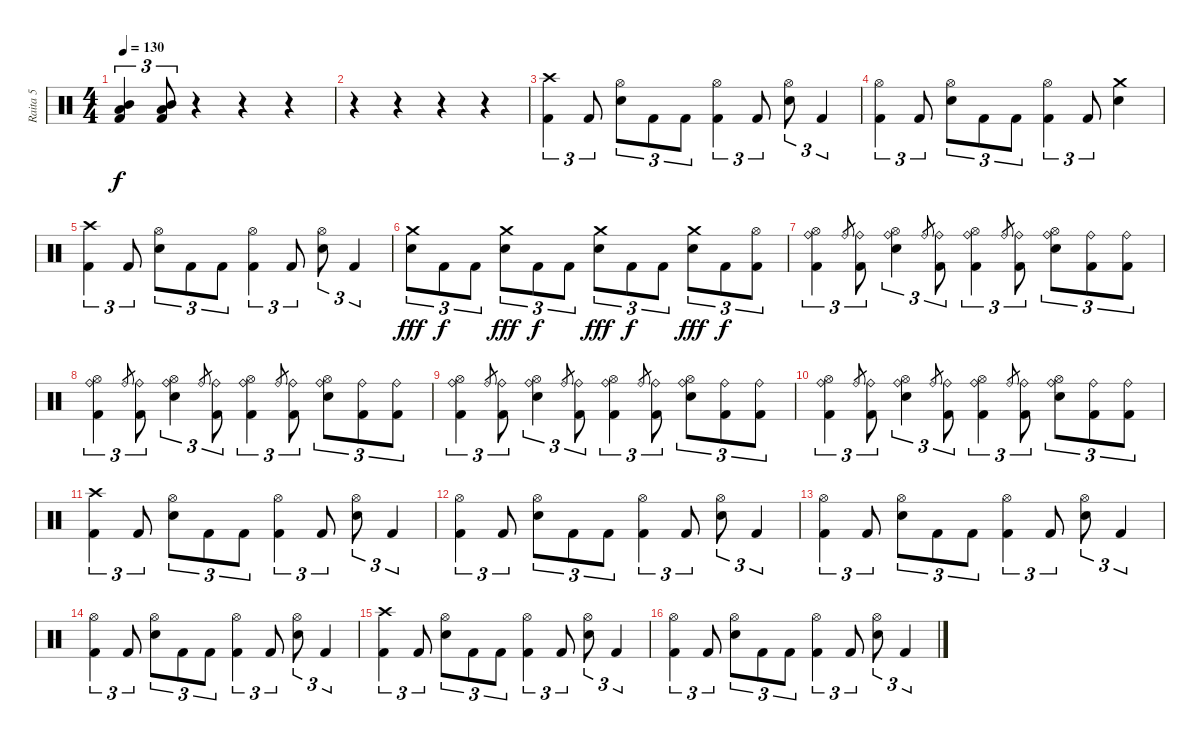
\track ("Raita 5" "Raita 5") {instrument percussion}
\staff {score}
\articulation defaults
\ts (4 4)
\tempo 130
\clef neutral
\ks c
("Mid Tom (hit)" "Low Tom (hit)" "Kick (hit) 2").4{tu (3 2) dy f} ("Mid Tom (hit)" "Low Tom (hit)" "Kick (hit) 2").8{tu (3 2)} r.4 r.4 r.4 |
r.4 r.4 r.4 r.4 |
("Crash high (hit)" "Kick (hit) 2").4{tu (3 2)} "Kick (hit) 2".8{tu (3 2)} ("Hi-Hat (open)" "Snare (hit) 2").8{tu (3 2)} "Kick (hit) 2".8{tu (3 2)} "Kick (hit) 2".8{tu (3 2)} ("Hi-Hat (open)" "Kick (hit) 2").4{tu (3 2)} "Kick (hit) 2".8{tu (3 2)} ("Hi-Hat (open)" "Snare (hit) 2").8{tu (3 2)} "Kick (hit) 2".4{tu (3 2)} |
("Hi-Hat (open)" "Kick (hit) 2").4{tu (3 2)} "Kick (hit) 2".8{tu (3 2)} ("Hi-Hat (open)" "Snare (hit) 2").8{tu (3 2)} "Kick (hit) 2".8{tu (3 2)} "Kick (hit) 2".8{tu (3 2)} ("Hi-Hat (open)" "Kick (hit) 2").4{tu (3 2)} "Kick (hit) 2".8{tu (3 2)} ("Crash medium (hit)" "Snare (hit) 2").4 |
("Crash high (hit)" "Kick (hit) 2").4{tu (3 2)} "Kick (hit) 2".8{tu (3 2)} ("Hi-Hat (open)" "Snare (hit) 2").8{tu (3 2)} "Kick (hit) 2".8{tu (3 2)} "Kick (hit) 2".8{tu (3 2)} ("Hi-Hat (open)" "Kick (hit) 2").4{tu (3 2)} "Kick (hit) 2".8{tu (3 2)} ("Hi-Hat (open)" "Snare (hit) 2").8{tu (3 2)} "Kick (hit) 2".4{tu (3 2)} |
("Crash medium (hit)" "Snare (hit) 2").8{tu (3 2) dy fff} "Kick (hit) 2".8{tu (3 2) dy f} "Kick (hit) 2".8{tu (3 2)} ("Crash medium (hit)" "Snare (hit) 2").8{tu (3 2) dy fff} "Kick (hit) 2".8{tu (3 2) dy f} "Kick (hit) 2".8{tu (3 2)} ("Crash medium (hit)" "Snare (hit) 2").8{tu (3 2) dy fff} "Kick (hit) 2".8{tu (3 2) dy f} "Kick (hit) 2".8{tu (3 2)} ("Crash medium (hit)" "Snare (hit) 2").8{tu (3 2) dy fff} "Kick (hit) 2".8{tu (3 2) dy f} ("Hi-Hat (open)" "Kick (hit) 2").8{tu (3 2)} |
("Ride (bell)" "Hi-Hat (open)" "Kick (hit) 2").4{tu (3 2)} "Ride (bell)".8{gr} ("Ride (bell)" "Kick (hit) 2").8{tu (3 2)} ("Ride (bell)" "Hi-Hat (open)" "Snare (hit) 2").4{tu (3 2)} "Ride (bell)".8{gr} ("Ride (bell)" "Kick (hit) 2").8{tu (3 2)} ("Ride (bell)" "Hi-Hat (open)" "Kick (hit) 2").4{tu (3 2)} "Ride (bell)".8{gr} ("Ride (bell)" "Kick (hit) 2").8{tu (3 2)} ("Ride (bell)" "Hi-Hat (open)" "Snare (hit) 2").8{tu (3 2)} ("Ride (bell)" "Kick (hit) 2").8{tu (3 2)} ("Ride (bell)" "Kick (hit) 2").8{tu (3 2)} |
("Ride (bell)" "Hi-Hat (open)" "Kick (hit) 2").4{tu (3 2)} "Ride (bell)".8{gr} ("Ride (bell)" "Kick (hit) 2").8{tu (3 2)} ("Ride (bell)" "Hi-Hat (open)" "Snare (hit) 2").4{tu (3 2)} "Ride (bell)".8{gr} ("Ride (bell)" "Kick (hit) 2").8{tu (3 2)} ("Ride (bell)" "Hi-Hat (open)" "Kick (hit) 2").4{tu (3 2)} "Ride (bell)".8{gr} ("Ride (bell)" "Kick (hit) 2").8{tu (3 2)} ("Ride (bell)" "Hi-Hat (open)" "Snare (hit) 2").8{tu (3 2)} ("Ride (bell)" "Kick (hit) 2").8{tu (3 2)} ("Ride (bell)" "Kick (hit) 2").8{tu (3 2)} |
("Ride (bell)" "Hi-Hat (open)" "Kick (hit) 2").4{tu (3 2)} "Ride (bell)".8{gr} ("Ride (bell)" "Kick (hit) 2").8{tu (3 2)} ("Ride (bell)" "Hi-Hat (open)" "Snare (hit) 2").4{tu (3 2)} "Ride (bell)".8{gr} ("Ride (bell)" "Kick (hit) 2").8{tu (3 2)} ("Ride (bell)" "Hi-Hat (open)" "Kick (hit) 2").4{tu (3 2)} "Ride (bell)".8{gr} ("Ride (bell)" "Kick (hit) 2").8{tu (3 2)} ("Ride (bell)" "Hi-Hat (open)" "Snare (hit) 2").8{tu (3 2)} ("Ride (bell)" "Kick (hit) 2").8{tu (3 2)} ("Ride (bell)" "Kick (hit) 2").8{tu (3 2)} |
("Ride (bell)" "Hi-Hat (open)" "Kick (hit) 2").4{tu (3 2)} "Ride (bell)".8{gr} ("Ride (bell)" "Kick (hit) 2").8{tu (3 2)} ("Ride (bell)" "Hi-Hat (open)" "Snare (hit) 2").4{tu (3 2)} "Ride (bell)".8{gr} ("Ride (bell)" "Kick (hit) 2").8{tu (3 2)} ("Ride (bell)" "Hi-Hat (open)" "Kick (hit) 2").4{tu (3 2)} "Ride (bell)".8{gr} ("Ride (bell)" "Kick (hit) 2").8{tu (3 2)} ("Ride (bell)" "Hi-Hat (open)" "Snare (hit) 2").8{tu (3 2)} ("Ride (bell)" "Kick (hit) 2").8{tu (3 2)} ("Ride (bell)" "Kick (hit) 2").8{tu (3 2)} |
("Crash high (hit)" "Kick (hit) 2").4{tu (3 2)} "Kick (hit) 2".8{tu (3 2)} ("Hi-Hat (open)" "Snare (hit) 2").8{tu (3 2)} "Kick (hit) 2".8{tu (3 2)} "Kick (hit) 2".8{tu (3 2)} ("Hi-Hat (open)" "Kick (hit) 2").4{tu (3 2)} "Kick (hit) 2".8{tu (3 2)} ("Hi-Hat (open)" "Snare (hit) 2").8{tu (3 2)} "Kick (hit) 2".4{tu (3 2)} |
("Hi-Hat (open)" "Kick (hit) 2").4{tu (3 2)} "Kick (hit) 2".8{tu (3 2)} ("Hi-Hat (open)" "Snare (hit) 2").8{tu (3 2)} "Kick (hit) 2".8{tu (3 2)} "Kick (hit) 2".8{tu (3 2)} ("Hi-Hat (open)" "Kick (hit) 2").4{tu (3 2)} "Kick (hit) 2".8{tu (3 2)} ("Hi-Hat (open)" "Snare (hit) 2").8{tu (3 2)} "Kick (hit) 2".4{tu (3 2)} |
("Hi-Hat (open)" "Kick (hit) 2").4{tu (3 2)} "Kick (hit) 2".8{tu (3 2)} ("Hi-Hat (open)" "Snare (hit) 2").8{tu (3 2)} "Kick (hit) 2".8{tu (3 2)} "Kick (hit) 2".8{tu (3 2)} ("Hi-Hat (open)" "Kick (hit) 2").4{tu (3 2)} "Kick (hit) 2".8{tu (3 2)} ("Hi-Hat (open)" "Snare (hit) 2").8{tu (3 2)} "Kick (hit) 2".4{tu (3 2)} |
("Hi-Hat (open)" "Kick (hit) 2").4{tu (3 2)} "Kick (hit) 2".8{tu (3 2)} ("Hi-Hat (open)" "Snare (hit) 2").8{tu (3 2)} "Kick (hit) 2".8{tu (3 2)} "Kick (hit) 2".8{tu (3 2)} ("Hi-Hat (open)" "Kick (hit) 2").4{tu (3 2)} "Kick (hit) 2".8{tu (3 2)} ("Hi-Hat (open)" "Snare (hit) 2").8{tu (3 2)} "Kick (hit) 2".4{tu (3 2)} |
("Crash high (hit)" "Kick (hit) 2").4{tu (3 2)} "Kick (hit) 2".8{tu (3 2)} ("Hi-Hat (open)" "Snare (hit) 2").8{tu (3 2)} "Kick (hit) 2".8{tu (3 2)} "Kick (hit) 2".8{tu (3 2)} ("Hi-Hat (open)" "Kick (hit) 2").4{tu (3 2)} "Kick (hit) 2".8{tu (3 2)} ("Hi-Hat (open)" "Snare (hit) 2").8{tu (3 2)} "Kick (hit) 2".4{tu (3 2)} |
("Hi-Hat (open)" "Kick (hit) 2").4{tu (3 2)} "Kick (hit) 2".8{tu (3 2)} ("Hi-Hat (open)" "Snare (hit) 2").8{tu (3 2)} "Kick (hit) 2".8{tu (3 2)} "Kick (hit) 2".8{tu (3 2)} ("Hi-Hat (open)" "Kick (hit) 2").4{tu (3 2)} "Kick (hit) 2".8{tu (3 2)} ("Hi-Hat (open)" "Snare (hit) 2").8{tu (3 2)} "Kick (hit) 2".4{tu (3 2)}
